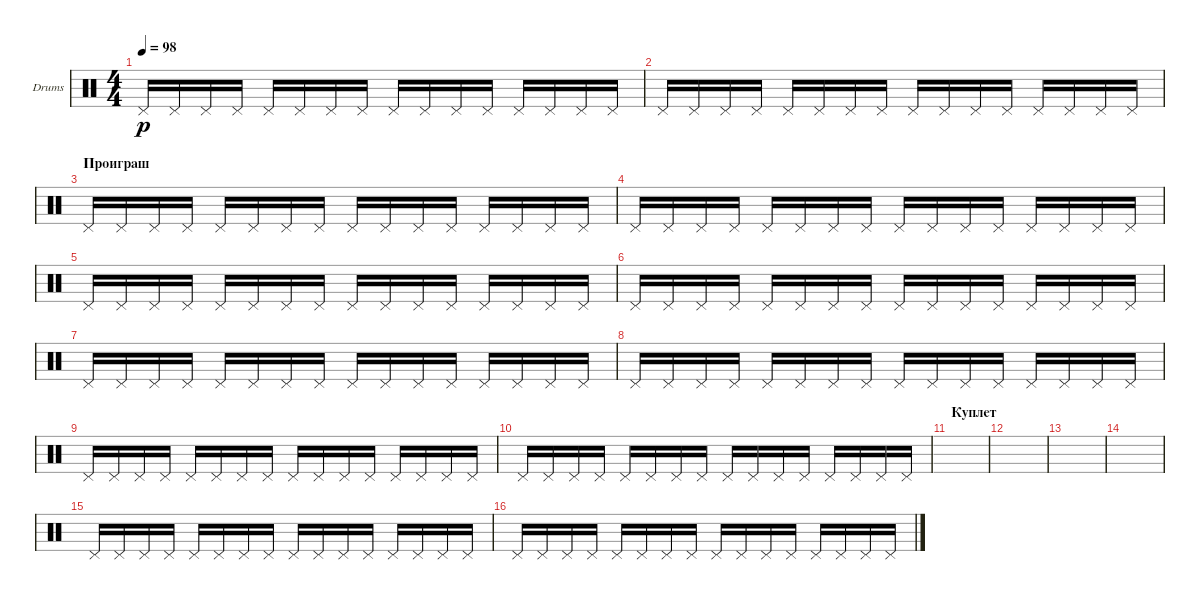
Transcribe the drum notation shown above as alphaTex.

\defaultSystemsLayout 4
\bracketExtendMode groupsimilarinstruments
\firstSystemTrackNameOrientation horizontal
\otherSystemsTrackNameOrientation horizontal
\track ("Е. Кулаков" "Drums") {instrument percussion}
\staff {score}
\articulation defaults
\ts (4 4)
\tempo 98
\clef neutral
\ks c "Pedal Hi-Hat (hit)".16{dy p} "Pedal Hi-Hat (hit)".16 "Pedal Hi-Hat (hit)".16 "Pedal Hi-Hat (hit)".16 "Pedal Hi-Hat (hit)".16 "Pedal Hi-Hat (hit)".16 "Pedal Hi-Hat (hit)".16 "Pedal Hi-Hat (hit)".16 "Pedal Hi-Hat (hit)".16 "Pedal Hi-Hat (hit)".16 "Pedal Hi-Hat (hit)".16 "Pedal Hi-Hat (hit)".16 "Pedal Hi-Hat (hit)".16 "Pedal Hi-Hat (hit)".16 "Pedal Hi-Hat (hit)".16 "Pedal Hi-Hat (hit)".16
|
"Pedal Hi-Hat (hit)".16 "Pedal Hi-Hat (hit)".16 "Pedal Hi-Hat (hit)".16 "Pedal Hi-Hat (hit)".16 "Pedal Hi-Hat (hit)".16 "Pedal Hi-Hat (hit)".16 "Pedal Hi-Hat (hit)".16 "Pedal Hi-Hat (hit)".16 "Pedal Hi-Hat (hit)".16 "Pedal Hi-Hat (hit)".16 "Pedal Hi-Hat (hit)".16 "Pedal Hi-Hat (hit)".16 "Pedal Hi-Hat (hit)".16 "Pedal Hi-Hat (hit)".16 "Pedal Hi-Hat (hit)".16 "Pedal Hi-Hat (hit)".16 |
\section ("" "Проиграш")
"Pedal Hi-Hat (hit)".16 "Pedal Hi-Hat (hit)".16 "Pedal Hi-Hat (hit)".16 "Pedal Hi-Hat (hit)".16 "Pedal Hi-Hat (hit)".16 "Pedal Hi-Hat (hit)".16 "Pedal Hi-Hat (hit)".16 "Pedal Hi-Hat (hit)".16 "Pedal Hi-Hat (hit)".16 "Pedal Hi-Hat (hit)".16 "Pedal Hi-Hat (hit)".16 "Pedal Hi-Hat (hit)".16 "Pedal Hi-Hat (hit)".16 "Pedal Hi-Hat (hit)".16 "Pedal Hi-Hat (hit)".16 "Pedal Hi-Hat (hit)".16 |
"Pedal Hi-Hat (hit)".16 "Pedal Hi-Hat (hit)".16 "Pedal Hi-Hat (hit)".16 "Pedal Hi-Hat (hit)".16 "Pedal Hi-Hat (hit)".16 "Pedal Hi-Hat (hit)".16 "Pedal Hi-Hat (hit)".16 "Pedal Hi-Hat (hit)".16 "Pedal Hi-Hat (hit)".16 "Pedal Hi-Hat (hit)".16 "Pedal Hi-Hat (hit)".16 "Pedal Hi-Hat (hit)".16 "Pedal Hi-Hat (hit)".16 "Pedal Hi-Hat (hit)".16 "Pedal Hi-Hat (hit)".16 "Pedal Hi-Hat (hit)".16 |
"Pedal Hi-Hat (hit)".16 "Pedal Hi-Hat (hit)".16 "Pedal Hi-Hat (hit)".16 "Pedal Hi-Hat (hit)".16 "Pedal Hi-Hat (hit)".16 "Pedal Hi-Hat (hit)".16 "Pedal Hi-Hat (hit)".16 "Pedal Hi-Hat (hit)".16 "Pedal Hi-Hat (hit)".16 "Pedal Hi-Hat (hit)".16 "Pedal Hi-Hat (hit)".16 "Pedal Hi-Hat (hit)".16 "Pedal Hi-Hat (hit)".16 "Pedal Hi-Hat (hit)".16 "Pedal Hi-Hat (hit)".16 "Pedal Hi-Hat (hit)".16 |
"Pedal Hi-Hat (hit)".16 "Pedal Hi-Hat (hit)".16 "Pedal Hi-Hat (hit)".16 "Pedal Hi-Hat (hit)".16 "Pedal Hi-Hat (hit)".16 "Pedal Hi-Hat (hit)".16 "Pedal Hi-Hat (hit)".16 "Pedal Hi-Hat (hit)".16 "Pedal Hi-Hat (hit)".16 "Pedal Hi-Hat (hit)".16 "Pedal Hi-Hat (hit)".16 "Pedal Hi-Hat (hit)".16 "Pedal Hi-Hat (hit)".16 "Pedal Hi-Hat (hit)".16 "Pedal Hi-Hat (hit)".16 "Pedal Hi-Hat (hit)".16 |
"Pedal Hi-Hat (hit)".16 "Pedal Hi-Hat (hit)".16 "Pedal Hi-Hat (hit)".16 "Pedal Hi-Hat (hit)".16 "Pedal Hi-Hat (hit)".16 "Pedal Hi-Hat (hit)".16 "Pedal Hi-Hat (hit)".16 "Pedal Hi-Hat (hit)".16 "Pedal Hi-Hat (hit)".16 "Pedal Hi-Hat (hit)".16 "Pedal Hi-Hat (hit)".16 "Pedal Hi-Hat (hit)".16 "Pedal Hi-Hat (hit)".16 "Pedal Hi-Hat (hit)".16 "Pedal Hi-Hat (hit)".16 "Pedal Hi-Hat (hit)".16 |
"Pedal Hi-Hat (hit)".16 "Pedal Hi-Hat (hit)".16 "Pedal Hi-Hat (hit)".16 "Pedal Hi-Hat (hit)".16 "Pedal Hi-Hat (hit)".16 "Pedal Hi-Hat (hit)".16 "Pedal Hi-Hat (hit)".16 "Pedal Hi-Hat (hit)".16 "Pedal Hi-Hat (hit)".16 "Pedal Hi-Hat (hit)".16 "Pedal Hi-Hat (hit)".16 "Pedal Hi-Hat (hit)".16 "Pedal Hi-Hat (hit)".16 "Pedal Hi-Hat (hit)".16 "Pedal Hi-Hat (hit)".16 "Pedal Hi-Hat (hit)".16 |
"Pedal Hi-Hat (hit)".16 "Pedal Hi-Hat (hit)".16 "Pedal Hi-Hat (hit)".16 "Pedal Hi-Hat (hit)".16 "Pedal Hi-Hat (hit)".16 "Pedal Hi-Hat (hit)".16 "Pedal Hi-Hat (hit)".16 "Pedal Hi-Hat (hit)".16 "Pedal Hi-Hat (hit)".16 "Pedal Hi-Hat (hit)".16 "Pedal Hi-Hat (hit)".16 "Pedal Hi-Hat (hit)".16 "Pedal Hi-Hat (hit)".16 "Pedal Hi-Hat (hit)".16 "Pedal Hi-Hat (hit)".16 "Pedal Hi-Hat (hit)".16 |
"Pedal Hi-Hat (hit)".16 "Pedal Hi-Hat (hit)".16 "Pedal Hi-Hat (hit)".16 "Pedal Hi-Hat (hit)".16 "Pedal Hi-Hat (hit)".16 "Pedal Hi-Hat (hit)".16 "Pedal Hi-Hat (hit)".16 "Pedal Hi-Hat (hit)".16 "Pedal Hi-Hat (hit)".16 "Pedal Hi-Hat (hit)".16 "Pedal Hi-Hat (hit)".16 "Pedal Hi-Hat (hit)".16 "Pedal Hi-Hat (hit)".16 "Pedal Hi-Hat (hit)".16 "Pedal Hi-Hat (hit)".16 "Pedal Hi-Hat (hit)".16 |
\section ("" "Куплет")
|
|
|
|
"Pedal Hi-Hat (hit)".16 "Pedal Hi-Hat (hit)".16 "Pedal Hi-Hat (hit)".16 "Pedal Hi-Hat (hit)".16 "Pedal Hi-Hat (hit)".16 "Pedal Hi-Hat (hit)".16 "Pedal Hi-Hat (hit)".16 "Pedal Hi-Hat (hit)".16 "Pedal Hi-Hat (hit)".16 "Pedal Hi-Hat (hit)".16 "Pedal Hi-Hat (hit)".16 "Pedal Hi-Hat (hit)".16 "Pedal Hi-Hat (hit)".16 "Pedal Hi-Hat (hit)".16 "Pedal Hi-Hat (hit)".16 "Pedal Hi-Hat (hit)".16 |
"Pedal Hi-Hat (hit)".16 "Pedal Hi-Hat (hit)".16 "Pedal Hi-Hat (hit)".16 "Pedal Hi-Hat (hit)".16 "Pedal Hi-Hat (hit)".16 "Pedal Hi-Hat (hit)".16 "Pedal Hi-Hat (hit)".16 "Pedal Hi-Hat (hit)".16 "Pedal Hi-Hat (hit)".16 "Pedal Hi-Hat (hit)".16 "Pedal Hi-Hat (hit)".16 "Pedal Hi-Hat (hit)".16 "Pedal Hi-Hat (hit)".16 "Pedal Hi-Hat (hit)".16 "Pedal Hi-Hat (hit)".16 "Pedal Hi-Hat (hit)".16
